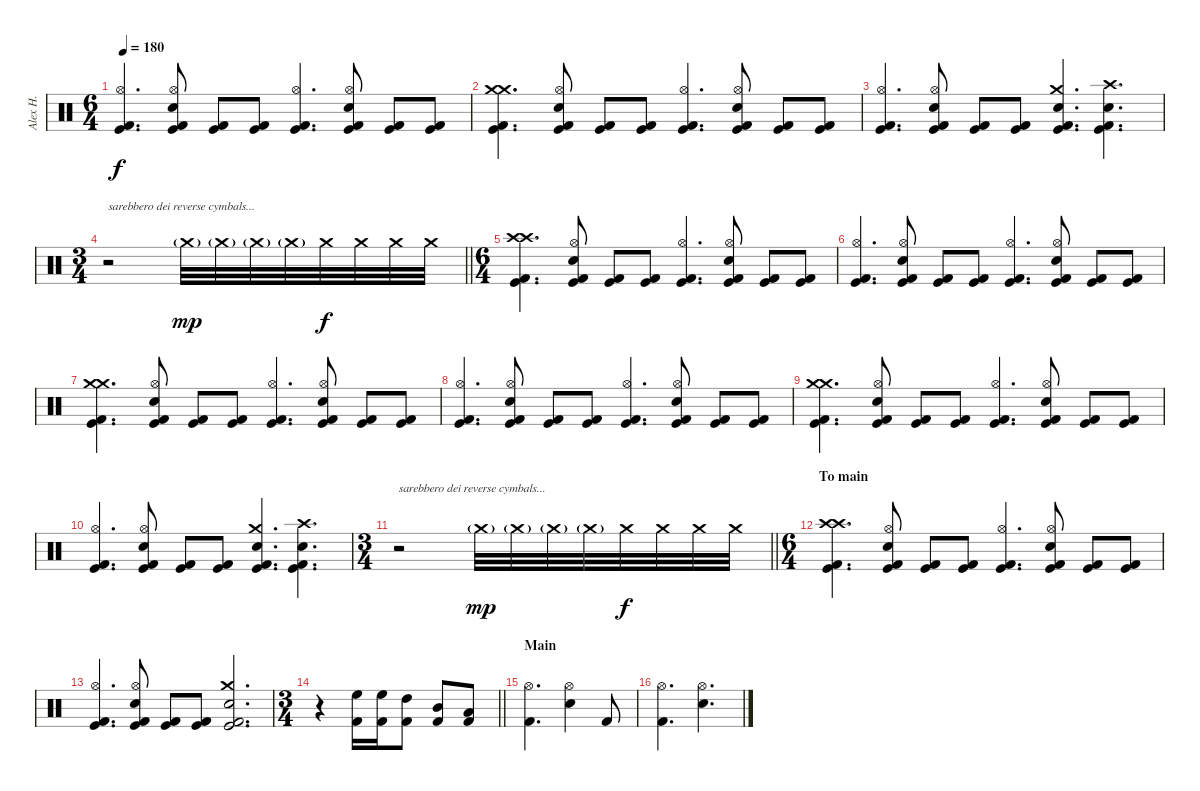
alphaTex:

\track ("Alex H." "Alex H.") {instrument percussion}
\staff {score}
\articulation defaults
\ts (6 4)
\tempo 180
\clef neutral
\ks c
("Kick (hit) 2" "Hi-Hat (open)" "Kick (hit)").4{d dy f} ("Kick (hit) 2" "Electric Snare (hit)" "Hi-Hat (open)" "Kick (hit)").8 ("Kick (hit) 2" "Kick (hit)").8 ("Kick (hit) 2" "Kick (hit)").8 ("Kick (hit) 2" "Hi-Hat (open)" "Kick (hit)").4{d} ("Kick (hit) 2" "Electric Snare (hit)" "Hi-Hat (open)" "Kick (hit)").8 ("Kick (hit) 2" "Kick (hit)").8 ("Kick (hit) 2" "Kick (hit)").8 |
("Kick (hit) 2" "Crash medium (hit)" "Crash medium (hit)" "Kick (hit)").4{d} ("Kick (hit) 2" "Electric Snare (hit)" "Hi-Hat (open)" "Kick (hit)").8 ("Kick (hit) 2" "Kick (hit)").8 ("Kick (hit) 2" "Kick (hit)").8 ("Kick (hit) 2" "Hi-Hat (open)" "Kick (hit)").4{d} ("Kick (hit) 2" "Electric Snare (hit)" "Hi-Hat (open)" "Kick (hit)").8 ("Kick (hit) 2" "Kick (hit)").8 ("Kick (hit) 2" "Kick (hit)").8 |
("Kick (hit) 2" "Hi-Hat (open)" "Kick (hit)").4{d} ("Kick (hit) 2" "Electric Snare (hit)" "Hi-Hat (open)" "Kick (hit)").8 ("Kick (hit) 2" "Kick (hit)").8 ("Kick (hit) 2" "Kick (hit)").8 ("Kick (hit) 2" "Snare (hit) 2" "Crash medium (hit)" "Kick (hit)").4{d} ("Kick (hit) 2" "Snare (hit) 2" "Crash high (hit)" "Kick (hit)").4{d} |
\ts (3 4)
\barLineRight lightlight
r.2{txt "sarebbero dei reverse cymbals..."} "Crash medium (hit)"{g}.32{dy mp} "Crash medium (hit)"{g}.32 "Crash medium (hit)"{g}.32 "Crash medium (hit)"{g}.32 "Crash medium (hit)".32{dy f} "Crash medium (hit)".32 "Crash medium (hit)".32 "Crash medium (hit)".32 |
\ts (6 4)
("Kick (hit) 2" "Crash high (hit)" "Crash high (hit)" "Kick (hit)").4{d} ("Kick (hit) 2" "Electric Snare (hit)" "Hi-Hat (open)" "Kick (hit)").8 ("Kick (hit) 2" "Kick (hit)").8 ("Kick (hit) 2" "Kick (hit)").8 ("Kick (hit) 2" "Hi-Hat (open)" "Kick (hit)").4{d} ("Kick (hit) 2" "Electric Snare (hit)" "Hi-Hat (open)" "Kick (hit)").8 ("Kick (hit) 2" "Kick (hit)").8 ("Kick (hit) 2" "Kick (hit)").8 |
("Kick (hit) 2" "Hi-Hat (open)" "Kick (hit)").4{d} ("Kick (hit) 2" "Electric Snare (hit)" "Hi-Hat (open)" "Kick (hit)").8 ("Kick (hit) 2" "Kick (hit)").8 ("Kick (hit) 2" "Kick (hit)").8 ("Kick (hit) 2" "Hi-Hat (open)" "Kick (hit)").4{d} ("Kick (hit) 2" "Electric Snare (hit)" "Hi-Hat (open)" "Kick (hit)").8 ("Kick (hit) 2" "Kick (hit)").8 ("Kick (hit) 2" "Kick (hit)").8 |
("Kick (hit) 2" "Crash medium (hit)" "Crash medium (hit)" "Kick (hit)").4{d} ("Kick (hit) 2" "Electric Snare (hit)" "Hi-Hat (open)" "Kick (hit)").8 ("Kick (hit) 2" "Kick (hit)").8 ("Kick (hit) 2" "Kick (hit)").8 ("Kick (hit) 2" "Hi-Hat (open)" "Kick (hit)").4{d} ("Kick (hit) 2" "Electric Snare (hit)" "Hi-Hat (open)" "Kick (hit)").8 ("Kick (hit) 2" "Kick (hit)").8 ("Kick (hit) 2" "Kick (hit)").8 |
("Kick (hit) 2" "Hi-Hat (open)" "Kick (hit)").4{d} ("Kick (hit) 2" "Electric Snare (hit)" "Hi-Hat (open)" "Kick (hit)").8 ("Kick (hit) 2" "Kick (hit)").8 ("Kick (hit) 2" "Kick (hit)").8 ("Kick (hit) 2" "Hi-Hat (open)" "Kick (hit)").4{d} ("Kick (hit) 2" "Electric Snare (hit)" "Hi-Hat (open)" "Kick (hit)").8 ("Kick (hit) 2" "Kick (hit)").8 ("Kick (hit) 2" "Kick (hit)").8 |
("Kick (hit) 2" "Crash medium (hit)" "Crash medium (hit)" "Kick (hit)").4{d} ("Kick (hit) 2" "Electric Snare (hit)" "Hi-Hat (open)" "Kick (hit)").8 ("Kick (hit) 2" "Kick (hit)").8 ("Kick (hit) 2" "Kick (hit)").8 ("Kick (hit) 2" "Hi-Hat (open)" "Kick (hit)").4{d} ("Kick (hit) 2" "Electric Snare (hit)" "Hi-Hat (open)" "Kick (hit)").8 ("Kick (hit) 2" "Kick (hit)").8 ("Kick (hit) 2" "Kick (hit)").8 |
("Kick (hit) 2" "Hi-Hat (open)" "Kick (hit)").4{d} ("Kick (hit) 2" "Electric Snare (hit)" "Hi-Hat (open)" "Kick (hit)").8 ("Kick (hit) 2" "Kick (hit)").8 ("Kick (hit) 2" "Kick (hit)").8 ("Kick (hit) 2" "Snare (hit) 2" "Crash medium (hit)" "Kick (hit)").4{d} ("Kick (hit) 2" "Snare (hit) 2" "Crash high (hit)" "Kick (hit)").4{d} |
\ts (3 4)
\barLineRight lightlight
r.2{txt "sarebbero dei reverse cymbals..."} "Crash medium (hit)"{g}.32{dy mp} "Crash medium (hit)"{g}.32 "Crash medium (hit)"{g}.32 "Crash medium (hit)"{g}.32 "Crash medium (hit)".32{dy f} "Crash medium (hit)".32 "Crash medium (hit)".32 "Crash medium (hit)".32 |
\ts (6 4)
\section ("" "To main")
("Kick (hit) 2" "Crash high (hit)" "Crash high (hit)" "Kick (hit)").4{d} ("Kick (hit) 2" "Electric Snare (hit)" "Hi-Hat (open)" "Kick (hit)").8 ("Kick (hit) 2" "Kick (hit)").8 ("Kick (hit) 2" "Kick (hit)").8 ("Kick (hit) 2" "Hi-Hat (open)" "Kick (hit)").4{d} ("Kick (hit) 2" "Electric Snare (hit)" "Hi-Hat (open)" "Kick (hit)").8 ("Kick (hit) 2" "Kick (hit)").8 ("Kick (hit) 2" "Kick (hit)").8 |
("Kick (hit) 2" "Hi-Hat (open)" "Kick (hit)").4{d} ("Kick (hit) 2" "Electric Snare (hit)" "Hi-Hat (open)" "Kick (hit)").8 ("Kick (hit) 2" "Kick (hit)").8 ("Kick (hit) 2" "Kick (hit)").8 ("Kick (hit) 2" "Snare (hit) 2" "Crash medium (hit)" "Kick (hit)").2{d} |
\ts (3 4)
\barLineRight lightlight
r.4 ("Kick (hit) 2" "High Floor Tom (hit)").16 ("Kick (hit) 2" "High Floor Tom (hit)").16 ("Kick (hit) 2" "High Tom (hit)").8 ("Kick (hit) 2" "Mid Tom (hit)").8 ("Kick (hit) 2" "Low Tom (hit)").8 |
\section ("" "Main")
("Kick (hit) 2" "Hi-Hat (open)").4{d} ("Electric Snare (hit)" "Hi-Hat (open)").4 "Kick (hit) 2".8 |
("Kick (hit) 2" "Hi-Hat (open)").4{d} ("Electric Snare (hit)" "Hi-Hat (open)").4{d}
